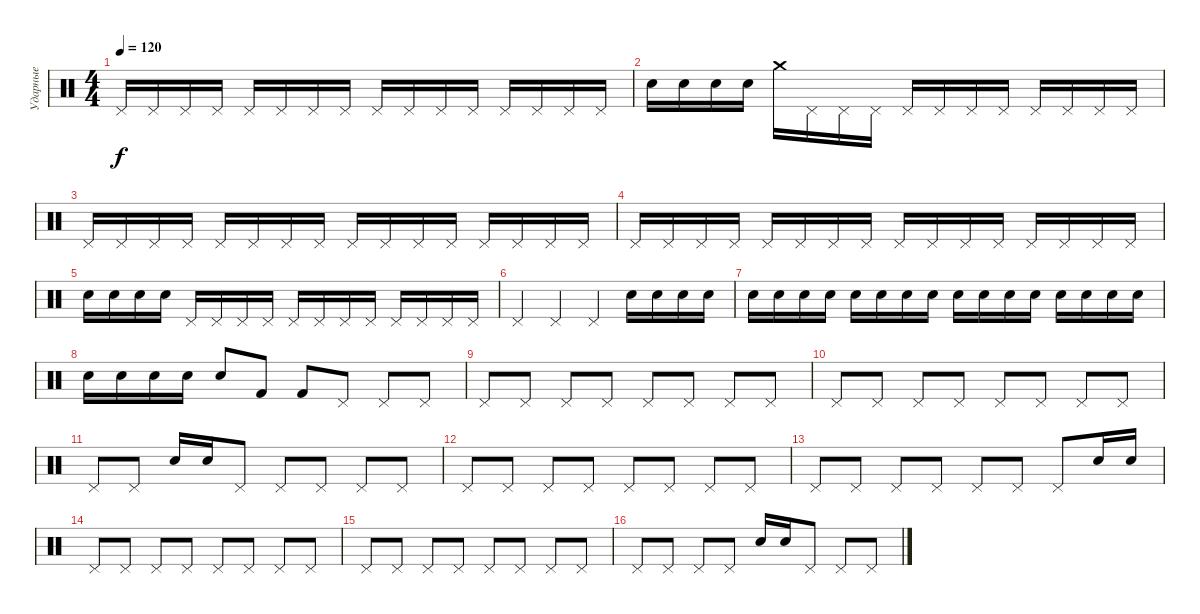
\track ("Ударные" "Ударные") {instrument percussion}
\staff {score}
\articulation defaults
\ts (4 4)
\tempo 120
\clef neutral
\ks c "Pedal Hi-Hat (hit)".16{dy f} "Pedal Hi-Hat (hit)".16 "Pedal Hi-Hat (hit)".16 "Pedal Hi-Hat (hit)".16 "Pedal Hi-Hat (hit)".16 "Pedal Hi-Hat (hit)".16 "Pedal Hi-Hat (hit)".16 "Pedal Hi-Hat (hit)".16 "Pedal Hi-Hat (hit)".16 "Pedal Hi-Hat (hit)".16 "Pedal Hi-Hat (hit)".16 "Pedal Hi-Hat (hit)".16 "Pedal Hi-Hat (hit)".16 "Pedal Hi-Hat (hit)".16 "Pedal Hi-Hat (hit)".16 "Pedal Hi-Hat (hit)".16
|
"Snare (hit) 2".16 "Snare (hit) 2".16 "Snare (hit) 2".16 "Snare (hit) 2".16 "Crash medium (hit)".16 "Pedal Hi-Hat (hit)".16 "Pedal Hi-Hat (hit)".16 "Pedal Hi-Hat (hit)".16 "Pedal Hi-Hat (hit)".16 "Pedal Hi-Hat (hit)".16 "Pedal Hi-Hat (hit)".16 "Pedal Hi-Hat (hit)".16 "Pedal Hi-Hat (hit)".16 "Pedal Hi-Hat (hit)".16 "Pedal Hi-Hat (hit)".16 "Pedal Hi-Hat (hit)".16 |
"Pedal Hi-Hat (hit)".16 "Pedal Hi-Hat (hit)".16 "Pedal Hi-Hat (hit)".16 "Pedal Hi-Hat (hit)".16 "Pedal Hi-Hat (hit)".16 "Pedal Hi-Hat (hit)".16 "Pedal Hi-Hat (hit)".16 "Pedal Hi-Hat (hit)".16 "Pedal Hi-Hat (hit)".16 "Pedal Hi-Hat (hit)".16 "Pedal Hi-Hat (hit)".16 "Pedal Hi-Hat (hit)".16 "Pedal Hi-Hat (hit)".16 "Pedal Hi-Hat (hit)".16 "Pedal Hi-Hat (hit)".16 "Pedal Hi-Hat (hit)".16 |
"Pedal Hi-Hat (hit)".16 "Pedal Hi-Hat (hit)".16 "Pedal Hi-Hat (hit)".16 "Pedal Hi-Hat (hit)".16 "Pedal Hi-Hat (hit)".16 "Pedal Hi-Hat (hit)".16 "Pedal Hi-Hat (hit)".16 "Pedal Hi-Hat (hit)".16 "Pedal Hi-Hat (hit)".16 "Pedal Hi-Hat (hit)".16 "Pedal Hi-Hat (hit)".16 "Pedal Hi-Hat (hit)".16 "Pedal Hi-Hat (hit)".16 "Pedal Hi-Hat (hit)".16 "Pedal Hi-Hat (hit)".16 "Pedal Hi-Hat (hit)".16 |
"Snare (hit) 2".16 "Snare (hit) 2".16 "Snare (hit) 2".16 "Snare (hit) 2".16 "Pedal Hi-Hat (hit)".16 "Pedal Hi-Hat (hit)".16 "Pedal Hi-Hat (hit)".16 "Pedal Hi-Hat (hit)".16 "Pedal Hi-Hat (hit)".16 "Pedal Hi-Hat (hit)".16 "Pedal Hi-Hat (hit)".16 "Pedal Hi-Hat (hit)".16 "Pedal Hi-Hat (hit)".16 "Pedal Hi-Hat (hit)".16 "Pedal Hi-Hat (hit)".16 "Pedal Hi-Hat (hit)".16 |
"Pedal Hi-Hat (hit)".4 "Pedal Hi-Hat (hit)".4 "Pedal Hi-Hat (hit)".4 "Snare (hit) 2".16 "Snare (hit) 2".16 "Snare (hit) 2".16 "Snare (hit) 2".16 |
"Snare (hit) 2".16 "Snare (hit) 2".16 "Snare (hit) 2".16 "Snare (hit) 2".16 "Snare (hit) 2".16 "Snare (hit) 2".16 "Snare (hit) 2".16 "Snare (hit) 2".16 "Snare (hit) 2".16 "Snare (hit) 2".16 "Snare (hit) 2".16 "Snare (hit) 2".16 "Snare (hit) 2".16 "Snare (hit) 2".16 "Snare (hit) 2".16 "Snare (hit) 2".16 |
"Snare (hit) 2".16 "Snare (hit) 2".16 "Snare (hit) 2".16 "Snare (hit) 2".16 "Snare (hit) 2".8 "Kick (hit) 2".8 "Kick (hit) 2".8 "Pedal Hi-Hat (hit)".8 "Pedal Hi-Hat (hit)".8 "Pedal Hi-Hat (hit)".8 |
"Pedal Hi-Hat (hit)".8 "Pedal Hi-Hat (hit)".8 "Pedal Hi-Hat (hit)".8 "Pedal Hi-Hat (hit)".8 "Pedal Hi-Hat (hit)".8 "Pedal Hi-Hat (hit)".8 "Pedal Hi-Hat (hit)".8 "Pedal Hi-Hat (hit)".8 |
"Pedal Hi-Hat (hit)".8 "Pedal Hi-Hat (hit)".8 "Pedal Hi-Hat (hit)".8 "Pedal Hi-Hat (hit)".8 "Pedal Hi-Hat (hit)".8 "Pedal Hi-Hat (hit)".8 "Pedal Hi-Hat (hit)".8 "Pedal Hi-Hat (hit)".8 |
"Pedal Hi-Hat (hit)".8 "Pedal Hi-Hat (hit)".8 "Snare (hit) 2".16 "Snare (hit) 2".16 "Pedal Hi-Hat (hit)".8 "Pedal Hi-Hat (hit)".8 "Pedal Hi-Hat (hit)".8 "Pedal Hi-Hat (hit)".8 "Pedal Hi-Hat (hit)".8 |
"Pedal Hi-Hat (hit)".8 "Pedal Hi-Hat (hit)".8 "Pedal Hi-Hat (hit)".8 "Pedal Hi-Hat (hit)".8 "Pedal Hi-Hat (hit)".8 "Pedal Hi-Hat (hit)".8 "Pedal Hi-Hat (hit)".8 "Pedal Hi-Hat (hit)".8 |
"Pedal Hi-Hat (hit)".8 "Pedal Hi-Hat (hit)".8 "Pedal Hi-Hat (hit)".8 "Pedal Hi-Hat (hit)".8 "Pedal Hi-Hat (hit)".8 "Pedal Hi-Hat (hit)".8 "Pedal Hi-Hat (hit)".8 "Snare (hit) 2".16 "Snare (hit) 2".16 |
"Pedal Hi-Hat (hit)".8 "Pedal Hi-Hat (hit)".8 "Pedal Hi-Hat (hit)".8 "Pedal Hi-Hat (hit)".8 "Pedal Hi-Hat (hit)".8 "Pedal Hi-Hat (hit)".8 "Pedal Hi-Hat (hit)".8 "Pedal Hi-Hat (hit)".8 |
"Pedal Hi-Hat (hit)".8 "Pedal Hi-Hat (hit)".8 "Pedal Hi-Hat (hit)".8 "Pedal Hi-Hat (hit)".8 "Pedal Hi-Hat (hit)".8 "Pedal Hi-Hat (hit)".8 "Pedal Hi-Hat (hit)".8 "Pedal Hi-Hat (hit)".8 |
"Pedal Hi-Hat (hit)".8 "Pedal Hi-Hat (hit)".8 "Pedal Hi-Hat (hit)".8 "Pedal Hi-Hat (hit)".8 "Snare (hit) 2".16 "Snare (hit) 2".16 "Pedal Hi-Hat (hit)".8 "Pedal Hi-Hat (hit)".8 "Pedal Hi-Hat (hit)".8
